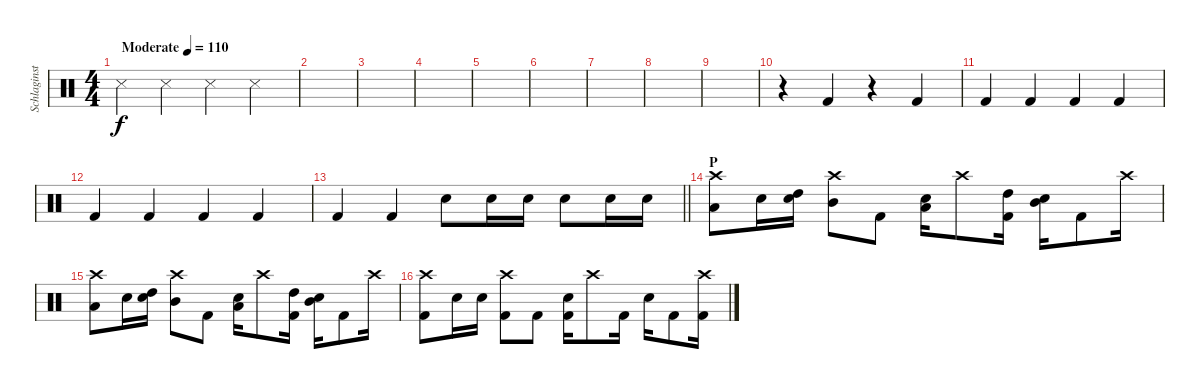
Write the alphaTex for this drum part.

\track ("Schlaginstrumente - Auswahl" "Schlaginst") {instrument percussion}
\staff {score}
\articulation defaults
\ts (4 4)
\tempo (110 "Moderate")
\clef neutral
\ks c "Snare (side stick) 3".4{dy f} "Snare (side stick) 3".4 "Snare (side stick) 3".4 "Snare (side stick) 3".4
|
|
|
|
|
|
|
|
|
r.4{volume 16} "Kick (hit) 2".4 r.4 "Kick (hit) 2".4 |
"Kick (hit) 2".4 "Kick (hit) 2".4 "Kick (hit) 2".4 "Kick (hit) 2".4 |
"Kick (hit) 2".4 "Kick (hit) 2".4 "Kick (hit) 2".4 "Kick (hit) 2".4 |
\barLineRight lightlight "Kick (hit) 2".4 "Kick (hit) 2".4 "Electric Snare (hit)".8 "Electric Snare (hit)".16 "Electric Snare (hit)".16 "Electric Snare (hit)".8 "Electric Snare (hit)".16 "Electric Snare (hit)".16
|
\section ("" "P")
("Crash high (hit)" "Low Floor Tom (hit)").8 "Electric Snare (hit)".16 ("Electric Snare (hit)" "High Tom (hit)").16 ("Crash high (hit)" "Mid Tom (hit)").8 "Kick (hit) 2".8 ("Electric Snare (hit)" "Low Floor Tom (hit)").16 "Crash high (hit)".8 ("Kick (hit) 2" "High Tom (hit)").16 ("Snare (hit) 2" "Mid Tom (hit)").16 "Kick (hit) 2".8 "Crash high (hit)".16 |
("Crash high (hit)" "Low Floor Tom (hit)").8 "Electric Snare (hit)".16 ("Electric Snare (hit)" "High Tom (hit)").16 ("Crash high (hit)" "Mid Tom (hit)").8 "Kick (hit) 2".8 ("Electric Snare (hit)" "Low Floor Tom (hit)").16 "Crash high (hit)".8 ("Kick (hit) 2" "High Tom (hit)").16 ("Snare (hit) 2" "Mid Tom (hit)").16 "Kick (hit) 2".8 "Crash high (hit)".16 |
("Crash high (hit)" "Kick (hit) 2").8 "Electric Snare (hit)".16 "Electric Snare (hit)".16 ("Crash high (hit)" "Kick (hit) 2").8 "Kick (hit) 2".8 ("Electric Snare (hit)" "Kick (hit) 2").16 "Crash high (hit)".8 "Kick (hit) 2".16 "Snare (hit) 2".16 "Kick (hit) 2".8 ("Crash high (hit)" "Kick (hit) 2").16
